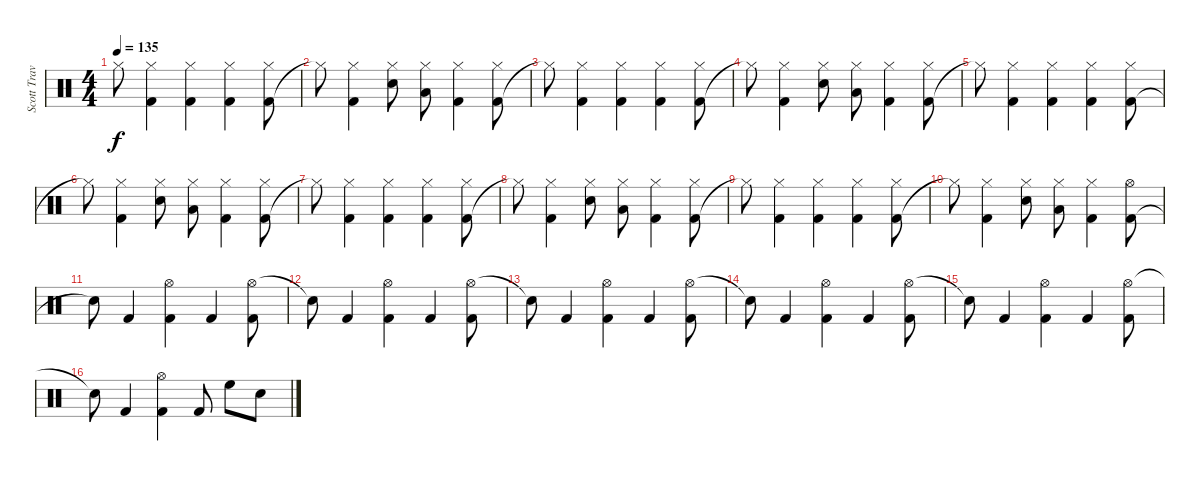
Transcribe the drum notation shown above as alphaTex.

\track ("Scott Travis" "Scott Trav") {instrument percussion}
\staff {score}
\articulation defaults
\ts (4 4)
\tempo 135
\clef neutral
\ks c "Hi-Hat (closed)"{t}.8{dy f}
("Kick (hit) 2" "Hi-Hat (closed)").4 ("Kick (hit) 2" "Hi-Hat (closed)").4 ("Kick (hit) 2" "Hi-Hat (closed)").4 ("Kick (hit) 2" "Hi-Hat (closed)").8 |
"Hi-Hat (closed)"{t}.8 ("Kick (hit) 2" "Hi-Hat (closed)").4 ("Hi-Hat (closed)" "Snare (hit) 2").8 ("Hi-Hat (closed)" "Low Floor Tom (hit)").8 ("Kick (hit) 2" "Hi-Hat (closed)").4 ("Kick (hit) 2" "Hi-Hat (closed)").8 |
"Hi-Hat (closed)"{t}.8 ("Kick (hit) 2" "Hi-Hat (closed)").4 ("Kick (hit) 2" "Hi-Hat (closed)").4 ("Kick (hit) 2" "Hi-Hat (closed)").4 ("Kick (hit) 2" "Hi-Hat (closed)").8 |
"Hi-Hat (closed)"{t}.8 ("Kick (hit) 2" "Hi-Hat (closed)").4 ("Hi-Hat (closed)" "Snare (hit) 2").8 ("Hi-Hat (closed)" "Low Floor Tom (hit)").8 ("Kick (hit) 2" "Hi-Hat (closed)").4 ("Kick (hit) 2" "Hi-Hat (closed)").8 |
"Hi-Hat (closed)"{t}.8 ("Kick (hit) 2" "Hi-Hat (closed)").4 ("Kick (hit) 2" "Hi-Hat (closed)").4 ("Kick (hit) 2" "Hi-Hat (closed)").4 ("Kick (hit) 2" "Hi-Hat (closed)").8 |
"Hi-Hat (closed)"{t}.8 ("Kick (hit) 2" "Hi-Hat (closed)").4 ("Hi-Hat (closed)" "Snare (hit) 2").8 ("Hi-Hat (closed)" "Low Floor Tom (hit)").8 ("Kick (hit) 2" "Hi-Hat (closed)").4 ("Kick (hit) 2" "Hi-Hat (closed)").8 |
"Hi-Hat (closed)"{t}.8 ("Kick (hit) 2" "Hi-Hat (closed)").4 ("Kick (hit) 2" "Hi-Hat (closed)").4 ("Kick (hit) 2" "Hi-Hat (closed)").4 ("Kick (hit) 2" "Hi-Hat (closed)").8 |
"Hi-Hat (closed)"{t}.8 ("Kick (hit) 2" "Hi-Hat (closed)").4 ("Hi-Hat (closed)" "Snare (hit) 2").8 ("Hi-Hat (closed)" "Low Floor Tom (hit)").8 ("Kick (hit) 2" "Hi-Hat (closed)").4 ("Kick (hit) 2" "Hi-Hat (closed)").8 |
"Hi-Hat (closed)"{t}.8 ("Kick (hit) 2" "Hi-Hat (closed)").4 ("Kick (hit) 2" "Hi-Hat (closed)").4 ("Kick (hit) 2" "Hi-Hat (closed)").4 ("Kick (hit) 2" "Hi-Hat (closed)").8 |
"Hi-Hat (closed)"{t}.8 ("Kick (hit) 2" "Hi-Hat (closed)").4 ("Hi-Hat (closed)" "Snare (hit) 2").8 ("Hi-Hat (closed)" "Low Floor Tom (hit)").8 ("Kick (hit) 2" "Hi-Hat (closed)").4 ("Kick (hit) 2" "Hi-Hat (open)").8 |
"Snare (hit)"{t}.8 "Kick (hit) 2".4 ("Kick (hit) 2" "Hi-Hat (open)").4 "Kick (hit) 2".4 ("Hi-Hat (open)" "Kick (hit) 2").8 |
"Snare (hit)"{t}.8 "Kick (hit) 2".4 ("Kick (hit) 2" "Hi-Hat (open)").4 "Kick (hit) 2".4 ("Hi-Hat (open)" "Kick (hit) 2").8 |
"Snare (hit)"{t}.8 "Kick (hit) 2".4 ("Kick (hit) 2" "Hi-Hat (open)").4 "Kick (hit) 2".4 ("Hi-Hat (open)" "Kick (hit) 2").8 |
"Snare (hit)"{t}.8 "Kick (hit) 2".4 ("Kick (hit) 2" "Hi-Hat (open)").4 "Kick (hit) 2".4 ("Hi-Hat (open)" "Kick (hit) 2").8 |
"Snare (hit)"{t}.8 "Kick (hit) 2".4 ("Kick (hit) 2" "Hi-Hat (open)").4 "Kick (hit) 2".4 ("Hi-Hat (open)" "Kick (hit) 2").8 |
"Snare (hit)"{t}.8 "Kick (hit) 2".4 ("Kick (hit) 2" "Hi-Hat (open)").4 "Kick (hit) 2".8 "High Floor Tom (hit)".8 "Snare (hit) 2".8
